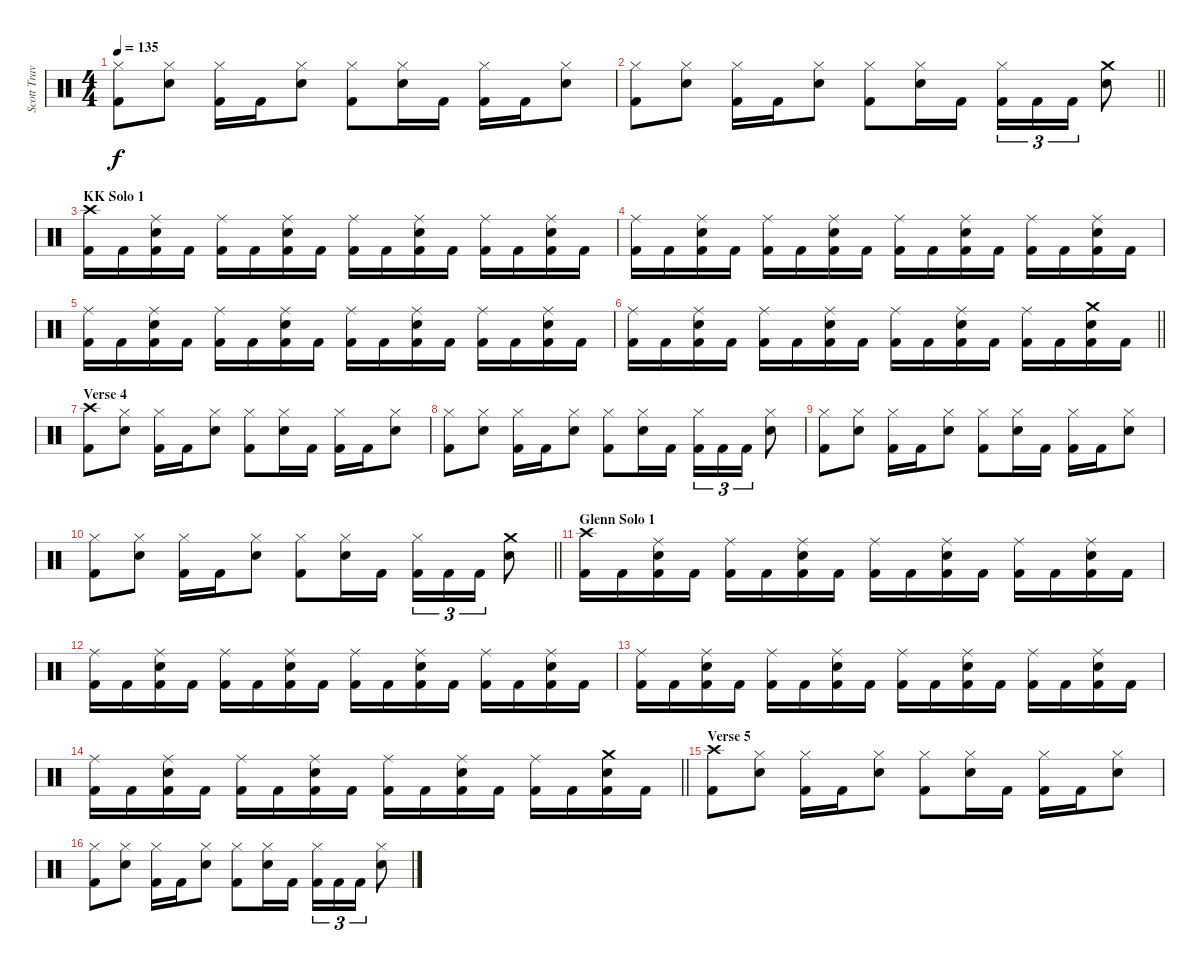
\track ("Scott Travis" "Scott Trav") {instrument percussion}
\staff {score}
\articulation defaults
\ts (4 4)
\tempo 135
\clef neutral
\ks c
("Hi-Hat (closed)" "Kick (hit) 2").8{dy f} ("Hi-Hat (closed)" "Snare (hit) 2").8 ("Hi-Hat (closed)" "Kick (hit) 2").16 "Kick (hit) 2".16 ("Hi-Hat (closed)" "Snare (hit) 2").8 ("Hi-Hat (closed)" "Kick (hit) 2").8 ("Hi-Hat (closed)" "Snare (hit) 2").16 "Kick (hit) 2".16 ("Hi-Hat (closed)" "Kick (hit) 2").16 "Kick (hit) 2".16 ("Hi-Hat (closed)" "Snare (hit) 2").8 |
\barLineRight lightlight
("Hi-Hat (closed)" "Kick (hit) 2").8 ("Hi-Hat (closed)" "Snare (hit) 2").8 ("Hi-Hat (closed)" "Kick (hit) 2").16 "Kick (hit) 2".16 ("Hi-Hat (closed)" "Snare (hit) 2").8 ("Hi-Hat (closed)" "Kick (hit) 2").8 ("Hi-Hat (closed)" "Snare (hit) 2").16 "Kick (hit) 2".16 ("Hi-Hat (closed)" "Kick (hit) 2").16{tu (3 2)} "Kick (hit) 2".16{tu (3 2)} "Kick (hit) 2".16{tu (3 2)} ("Crash medium (hit)" "Snare (hit) 2").8 |
\section ("" "KK Solo 1")
("Crash high (hit)" "Kick (hit) 2").16 "Kick (hit) 2".16 ("Ride (middle)" "Snare (hit) 2" "Kick (hit) 2").16 "Kick (hit) 2".16 ("Ride (middle)" "Kick (hit) 2").16 "Kick (hit) 2".16 ("Ride (middle)" "Snare (hit) 2" "Kick (hit) 2").16 "Kick (hit) 2".16 ("Ride (middle)" "Kick (hit) 2").16 "Kick (hit) 2".16 ("Ride (middle)" "Snare (hit) 2" "Kick (hit) 2").16 "Kick (hit) 2".16 ("Ride (middle)" "Kick (hit) 2").16 "Kick (hit) 2".16 ("Ride (middle)" "Snare (hit) 2" "Kick (hit) 2").16 "Kick (hit) 2".16 |
("Ride (middle)" "Kick (hit) 2").16 "Kick (hit) 2".16 ("Ride (middle)" "Snare (hit) 2" "Kick (hit) 2").16 "Kick (hit) 2".16 ("Ride (middle)" "Kick (hit) 2").16 "Kick (hit) 2".16 ("Ride (middle)" "Snare (hit) 2" "Kick (hit) 2").16 "Kick (hit) 2".16 ("Ride (middle)" "Kick (hit) 2").16 "Kick (hit) 2".16 ("Ride (middle)" "Snare (hit) 2" "Kick (hit) 2").16 "Kick (hit) 2".16 ("Ride (middle)" "Kick (hit) 2").16 "Kick (hit) 2".16 ("Ride (middle)" "Snare (hit) 2" "Kick (hit) 2").16 "Kick (hit) 2".16 |
("Ride (middle)" "Kick (hit) 2").16 "Kick (hit) 2".16 ("Ride (middle)" "Snare (hit) 2" "Kick (hit) 2").16 "Kick (hit) 2".16 ("Ride (middle)" "Kick (hit) 2").16 "Kick (hit) 2".16 ("Ride (middle)" "Snare (hit) 2" "Kick (hit) 2").16 "Kick (hit) 2".16 ("Ride (middle)" "Kick (hit) 2").16 "Kick (hit) 2".16 ("Ride (middle)" "Snare (hit) 2" "Kick (hit) 2").16 "Kick (hit) 2".16 ("Ride (middle)" "Kick (hit) 2").16 "Kick (hit) 2".16 ("Ride (middle)" "Snare (hit) 2" "Kick (hit) 2").16 "Kick (hit) 2".16 |
\barLineRight lightlight
("Ride (middle)" "Kick (hit) 2").16 "Kick (hit) 2".16 ("Ride (middle)" "Snare (hit) 2" "Kick (hit) 2").16 "Kick (hit) 2".16 ("Ride (middle)" "Kick (hit) 2").16 "Kick (hit) 2".16 ("Ride (middle)" "Snare (hit) 2" "Kick (hit) 2").16 "Kick (hit) 2".16 ("Ride (middle)" "Kick (hit) 2").16 "Kick (hit) 2".16 ("Ride (middle)" "Snare (hit) 2" "Kick (hit) 2").16 "Kick (hit) 2".16 ("Ride (middle)" "Kick (hit) 2").16 "Kick (hit) 2".16 ("Crash medium (hit)" "Snare (hit) 2" "Kick (hit) 2").16 "Kick (hit) 2".16 |
\section ("" "Verse 4")
("Crash high (hit)" "Kick (hit) 2").8 ("Hi-Hat (closed)" "Snare (hit) 2").8 ("Hi-Hat (closed)" "Kick (hit) 2").16 "Kick (hit) 2".16 ("Hi-Hat (closed)" "Snare (hit) 2").8 ("Hi-Hat (closed)" "Kick (hit) 2").8 ("Hi-Hat (closed)" "Snare (hit) 2").16 "Kick (hit) 2".16 ("Hi-Hat (closed)" "Kick (hit) 2").16 "Kick (hit) 2".16 ("Hi-Hat (closed)" "Snare (hit) 2").8 |
("Hi-Hat (closed)" "Kick (hit) 2").8 ("Hi-Hat (closed)" "Snare (hit) 2").8 ("Hi-Hat (closed)" "Kick (hit) 2").16 "Kick (hit) 2".16 ("Hi-Hat (closed)" "Snare (hit) 2").8 ("Hi-Hat (closed)" "Kick (hit) 2").8 ("Hi-Hat (closed)" "Snare (hit) 2").16 "Kick (hit) 2".16 ("Hi-Hat (closed)" "Kick (hit) 2").16{tu (3 2)} "Kick (hit) 2".16{tu (3 2)} "Kick (hit) 2".16{tu (3 2)} ("Hi-Hat (closed)" "Snare (hit) 2").8 |
("Hi-Hat (closed)" "Kick (hit) 2").8 ("Hi-Hat (closed)" "Snare (hit) 2").8 ("Hi-Hat (closed)" "Kick (hit) 2").16 "Kick (hit) 2".16 ("Hi-Hat (closed)" "Snare (hit) 2").8 ("Hi-Hat (closed)" "Kick (hit) 2").8 ("Hi-Hat (closed)" "Snare (hit) 2").16 "Kick (hit) 2".16 ("Hi-Hat (closed)" "Kick (hit) 2").16 "Kick (hit) 2".16 ("Hi-Hat (closed)" "Snare (hit) 2").8 |
\barLineRight lightlight
("Hi-Hat (closed)" "Kick (hit) 2").8 ("Hi-Hat (closed)" "Snare (hit) 2").8 ("Hi-Hat (closed)" "Kick (hit) 2").16 "Kick (hit) 2".16 ("Hi-Hat (closed)" "Snare (hit) 2").8 ("Hi-Hat (closed)" "Kick (hit) 2").8 ("Hi-Hat (closed)" "Snare (hit) 2").16 "Kick (hit) 2".16 ("Hi-Hat (closed)" "Kick (hit) 2").16{tu (3 2)} "Kick (hit) 2".16{tu (3 2)} "Kick (hit) 2".16{tu (3 2)} ("Crash medium (hit)" "Snare (hit) 2").8 |
\section ("" "Glenn Solo 1")
("Crash high (hit)" "Kick (hit) 2").16 "Kick (hit) 2".16 ("Ride (middle)" "Snare (hit) 2" "Kick (hit) 2").16 "Kick (hit) 2".16 ("Ride (middle)" "Kick (hit) 2").16 "Kick (hit) 2".16 ("Ride (middle)" "Snare (hit) 2" "Kick (hit) 2").16 "Kick (hit) 2".16 ("Ride (middle)" "Kick (hit) 2").16 "Kick (hit) 2".16 ("Ride (middle)" "Snare (hit) 2" "Kick (hit) 2").16 "Kick (hit) 2".16 ("Ride (middle)" "Kick (hit) 2").16 "Kick (hit) 2".16 ("Ride (middle)" "Snare (hit) 2" "Kick (hit) 2").16 "Kick (hit) 2".16 |
("Ride (middle)" "Kick (hit) 2").16 "Kick (hit) 2".16 ("Ride (middle)" "Snare (hit) 2" "Kick (hit) 2").16 "Kick (hit) 2".16 ("Ride (middle)" "Kick (hit) 2").16 "Kick (hit) 2".16 ("Ride (middle)" "Snare (hit) 2" "Kick (hit) 2").16 "Kick (hit) 2".16 ("Ride (middle)" "Kick (hit) 2").16 "Kick (hit) 2".16 ("Ride (middle)" "Snare (hit) 2" "Kick (hit) 2").16 "Kick (hit) 2".16 ("Ride (middle)" "Kick (hit) 2").16 "Kick (hit) 2".16 ("Ride (middle)" "Snare (hit) 2" "Kick (hit) 2").16 "Kick (hit) 2".16 |
("Ride (middle)" "Kick (hit) 2").16 "Kick (hit) 2".16 ("Ride (middle)" "Snare (hit) 2" "Kick (hit) 2").16 "Kick (hit) 2".16 ("Ride (middle)" "Kick (hit) 2").16 "Kick (hit) 2".16 ("Ride (middle)" "Snare (hit) 2" "Kick (hit) 2").16 "Kick (hit) 2".16 ("Ride (middle)" "Kick (hit) 2").16 "Kick (hit) 2".16 ("Ride (middle)" "Snare (hit) 2" "Kick (hit) 2").16 "Kick (hit) 2".16 ("Ride (middle)" "Kick (hit) 2").16 "Kick (hit) 2".16 ("Ride (middle)" "Snare (hit) 2" "Kick (hit) 2").16 "Kick (hit) 2".16 |
\barLineRight lightlight
("Ride (middle)" "Kick (hit) 2").16 "Kick (hit) 2".16 ("Ride (middle)" "Snare (hit) 2" "Kick (hit) 2").16 "Kick (hit) 2".16 ("Ride (middle)" "Kick (hit) 2").16 "Kick (hit) 2".16 ("Ride (middle)" "Snare (hit) 2" "Kick (hit) 2").16 "Kick (hit) 2".16 ("Ride (middle)" "Kick (hit) 2").16 "Kick (hit) 2".16 ("Ride (middle)" "Snare (hit) 2" "Kick (hit) 2").16 "Kick (hit) 2".16 ("Ride (middle)" "Kick (hit) 2").16 "Kick (hit) 2".16 ("Crash medium (hit)" "Snare (hit) 2" "Kick (hit) 2").16 "Kick (hit) 2".16 |
\section ("" "Verse 5")
("Crash high (hit)" "Kick (hit) 2").8 ("Hi-Hat (closed)" "Snare (hit) 2").8 ("Hi-Hat (closed)" "Kick (hit) 2").16 "Kick (hit) 2".16 ("Hi-Hat (closed)" "Snare (hit) 2").8 ("Hi-Hat (closed)" "Kick (hit) 2").8 ("Hi-Hat (closed)" "Snare (hit) 2").16 "Kick (hit) 2".16 ("Hi-Hat (closed)" "Kick (hit) 2").16 "Kick (hit) 2".16 ("Hi-Hat (closed)" "Snare (hit) 2").8 |
("Hi-Hat (closed)" "Kick (hit) 2").8 ("Hi-Hat (closed)" "Snare (hit) 2").8 ("Hi-Hat (closed)" "Kick (hit) 2").16 "Kick (hit) 2".16 ("Hi-Hat (closed)" "Snare (hit) 2").8 ("Hi-Hat (closed)" "Kick (hit) 2").8 ("Hi-Hat (closed)" "Snare (hit) 2").16 "Kick (hit) 2".16 ("Hi-Hat (closed)" "Kick (hit) 2").16{tu (3 2)} "Kick (hit) 2".16{tu (3 2)} "Kick (hit) 2".16{tu (3 2)} ("Hi-Hat (closed)" "Snare (hit) 2").8
